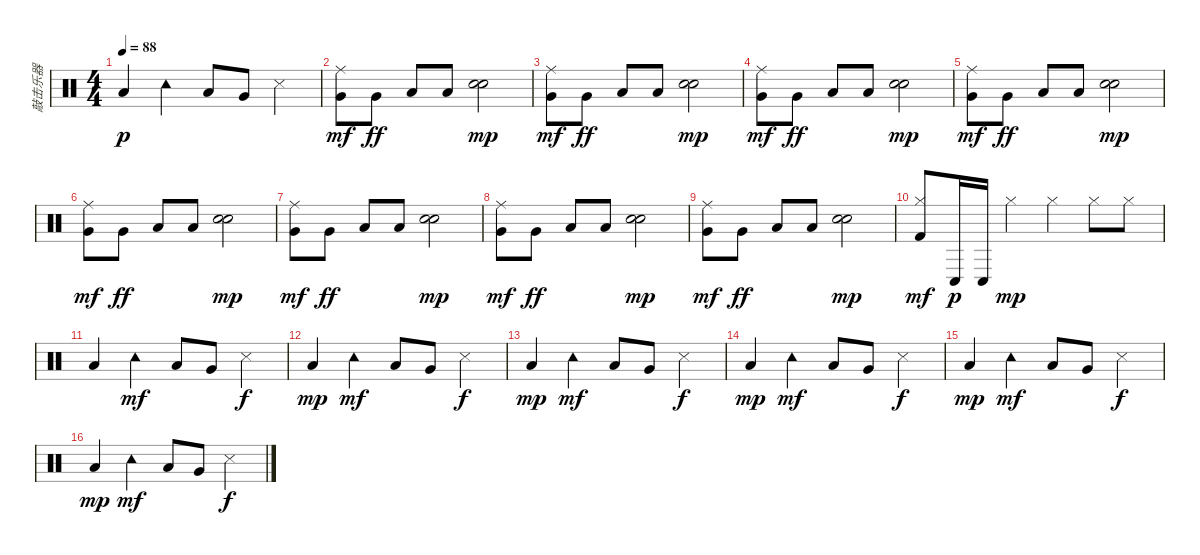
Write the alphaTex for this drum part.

\track ("敲击乐器" "敲击乐器") {instrument percussion}
\staff {score}
\articulation defaults
\ts (4 4)
\tempo 88
\clef neutral
\ks c "Low Floor Tom (hit)".4{dy p} "Tambourine (hit)".4 "Low Floor Tom (hit)".8 "Very Low Tom (hit)".8 "Snare (side stick) 3".4
|
("Very Low Tom (hit)" "Ride (middle)").8{dy mf} "Very Low Tom (hit)".8{dy ff} "Low Floor Tom (hit)".8 "Low Floor Tom (hit)".8 ("Hand Clap (hit)" "Snare (hit) 2").2{dy mp} |
("Very Low Tom (hit)" "Ride (middle)").8{dy mf} "Very Low Tom (hit)".8{dy ff} "Low Floor Tom (hit)".8 "Low Floor Tom (hit)".8 ("Hand Clap (hit)" "Snare (hit) 2").2{dy mp} |
("Very Low Tom (hit)" "Ride (middle)").8{dy mf} "Very Low Tom (hit)".8{dy ff} "Low Floor Tom (hit)".8 "Low Floor Tom (hit)".8 ("Hand Clap (hit)" "Snare (hit) 2").2{dy mp} |
("Very Low Tom (hit)" "Ride (middle)").8{dy mf} "Very Low Tom (hit)".8{dy ff} "Low Floor Tom (hit)".8 "Low Floor Tom (hit)".8 ("Hand Clap (hit)" "Snare (hit) 2").2{dy mp} |
("Very Low Tom (hit)" "Ride (middle)").8{dy mf} "Very Low Tom (hit)".8{dy ff} "Low Floor Tom (hit)".8 "Low Floor Tom (hit)".8 ("Hand Clap (hit)" "Snare (hit) 2").2{dy mp} |
("Very Low Tom (hit)" "Ride (middle)").8{dy mf} "Very Low Tom (hit)".8{dy ff} "Low Floor Tom (hit)".8 "Low Floor Tom (hit)".8 ("Hand Clap (hit)" "Snare (hit) 2").2{dy mp} |
("Very Low Tom (hit)" "Ride (middle)").8{dy mf} "Very Low Tom (hit)".8{dy ff} "Low Floor Tom (hit)".8 "Low Floor Tom (hit)".8 ("Hand Clap (hit)" "Snare (hit) 2").2{dy mp} |
("Very Low Tom (hit)" "Ride (middle)").8{dy mf} "Very Low Tom (hit)".8{dy ff} "Low Floor Tom (hit)".8 "Low Floor Tom (hit)".8 ("Hand Clap (hit)" "Snare (hit) 2").2{dy mp} |
("Hi-Hat (closed)" "Kick (hit) 2").8{dy mf} "Conga low (hit)".16{dy p} "Conga low (hit)".16 "Hi-Hat (closed)".4{dy mp} "Hi-Hat (closed)".4 "Hi-Hat (closed)".8 "Hi-Hat (closed)".8 |
"Low Floor Tom (hit)".4 "Tambourine (hit)".4{dy mf} "Low Floor Tom (hit)".8 "Very Low Tom (hit)".8 "Snare (side stick) 3".4{dy f} |
"Low Floor Tom (hit)".4{dy mp} "Tambourine (hit)".4{dy mf} "Low Floor Tom (hit)".8 "Very Low Tom (hit)".8 "Snare (side stick) 3".4{dy f} |
"Low Floor Tom (hit)".4{dy mp} "Tambourine (hit)".4{dy mf} "Low Floor Tom (hit)".8 "Very Low Tom (hit)".8 "Snare (side stick) 3".4{dy f} |
"Low Floor Tom (hit)".4{dy mp} "Tambourine (hit)".4{dy mf} "Low Floor Tom (hit)".8 "Very Low Tom (hit)".8 "Snare (side stick) 3".4{dy f} |
"Low Floor Tom (hit)".4{dy mp} "Tambourine (hit)".4{dy mf} "Low Floor Tom (hit)".8 "Very Low Tom (hit)".8 "Snare (side stick) 3".4{dy f} |
"Low Floor Tom (hit)".4{dy mp} "Tambourine (hit)".4{dy mf} "Low Floor Tom (hit)".8 "Very Low Tom (hit)".8 "Snare (side stick) 3".4{dy f}
